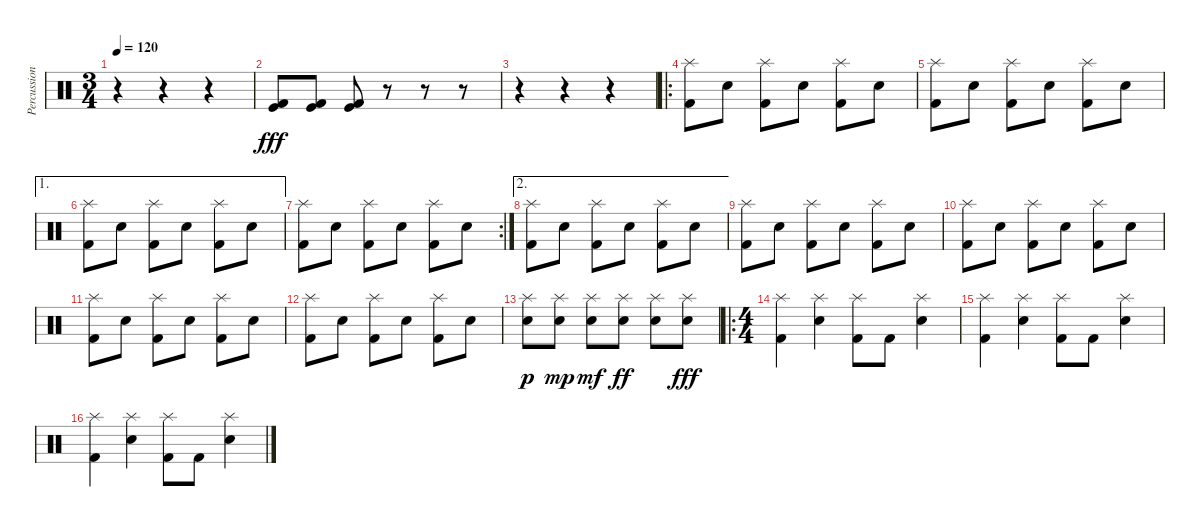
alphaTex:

\track ("Percussion" "Percussion") {instrument percussion}
\staff {score}
\articulation defaults
\ts (3 4)
\tempo 120
\clef neutral
\ks c
r.4{dy fff} r.4 r.4 |
("Kick (hit)" "Kick (hit) 2").8 ("Kick (hit)" "Kick (hit) 2").8 ("Kick (hit)" "Kick (hit) 2").8 r.8 r.8 r.8 |
r.4 r.4 r.4 |
\ro
("Splash (hit)" "Kick (hit) 2").8 "Electric Snare (hit)".8 ("Splash (hit)" "Kick (hit) 2").8 "Electric Snare (hit)".8 ("Splash (hit)" "Kick (hit) 2").8 "Electric Snare (hit)".8 |
("Splash (hit)" "Kick (hit) 2").8 "Electric Snare (hit)".8 ("Splash (hit)" "Kick (hit) 2").8 "Electric Snare (hit)".8 ("Splash (hit)" "Kick (hit) 2").8 "Electric Snare (hit)".8 |
\ae 1
("Splash (hit)" "Kick (hit) 2").8 "Electric Snare (hit)".8 ("Splash (hit)" "Kick (hit) 2").8 "Electric Snare (hit)".8 ("Splash (hit)" "Kick (hit) 2").8 "Electric Snare (hit)".8 |
\rc 2
("Splash (hit)" "Kick (hit) 2").8 "Electric Snare (hit)".8 ("Splash (hit)" "Kick (hit) 2").8 "Electric Snare (hit)".8 ("Splash (hit)" "Kick (hit) 2").8 "Electric Snare (hit)".8 |
\ae 2
("Splash (hit)" "Kick (hit) 2").8 "Electric Snare (hit)".8 ("Splash (hit)" "Kick (hit) 2").8 "Electric Snare (hit)".8 ("Splash (hit)" "Kick (hit) 2").8 "Electric Snare (hit)".8 |
("Splash (hit)" "Kick (hit) 2").8 "Electric Snare (hit)".8 ("Splash (hit)" "Kick (hit) 2").8 "Electric Snare (hit)".8 ("Splash (hit)" "Kick (hit) 2").8 "Electric Snare (hit)".8 |
("Splash (hit)" "Kick (hit) 2").8 "Electric Snare (hit)".8 ("Splash (hit)" "Kick (hit) 2").8 "Electric Snare (hit)".8 ("Splash (hit)" "Kick (hit) 2").8 "Electric Snare (hit)".8 |
("Splash (hit)" "Kick (hit) 2").8 "Electric Snare (hit)".8 ("Splash (hit)" "Kick (hit) 2").8 "Electric Snare (hit)".8 ("Splash (hit)" "Kick (hit) 2").8 "Electric Snare (hit)".8 |
("Splash (hit)" "Kick (hit) 2").8 "Electric Snare (hit)".8 ("Splash (hit)" "Kick (hit) 2").8 "Electric Snare (hit)".8 ("Splash (hit)" "Kick (hit) 2").8 "Electric Snare (hit)".8 |
("Splash (hit)" "Electric Snare (hit)").8{dy p} ("Splash (hit)" "Electric Snare (hit)").8{dy mp} ("Splash (hit)" "Electric Snare (hit)").8{dy mf} ("Splash (hit)" "Electric Snare (hit)").8{dy ff} ("Splash (hit)" "Electric Snare (hit)").8 ("Splash (hit)" "Electric Snare (hit)").8{dy fff} |
\ro
\ts (4 4)
("Splash (hit)" "Kick (hit) 2").4 ("Splash (hit)" "Electric Snare (hit)").4 ("Splash (hit)" "Kick (hit) 2").8 "Kick (hit) 2".8 ("Splash (hit)" "Electric Snare (hit)").4 |
("Splash (hit)" "Kick (hit) 2").4 ("Splash (hit)" "Electric Snare (hit)").4 ("Splash (hit)" "Kick (hit) 2").8 "Kick (hit) 2".8 ("Splash (hit)" "Electric Snare (hit)").4 |
("Splash (hit)" "Kick (hit) 2").4 ("Splash (hit)" "Electric Snare (hit)").4 ("Splash (hit)" "Kick (hit) 2").8 "Kick (hit) 2".8 ("Splash (hit)" "Electric Snare (hit)").4
